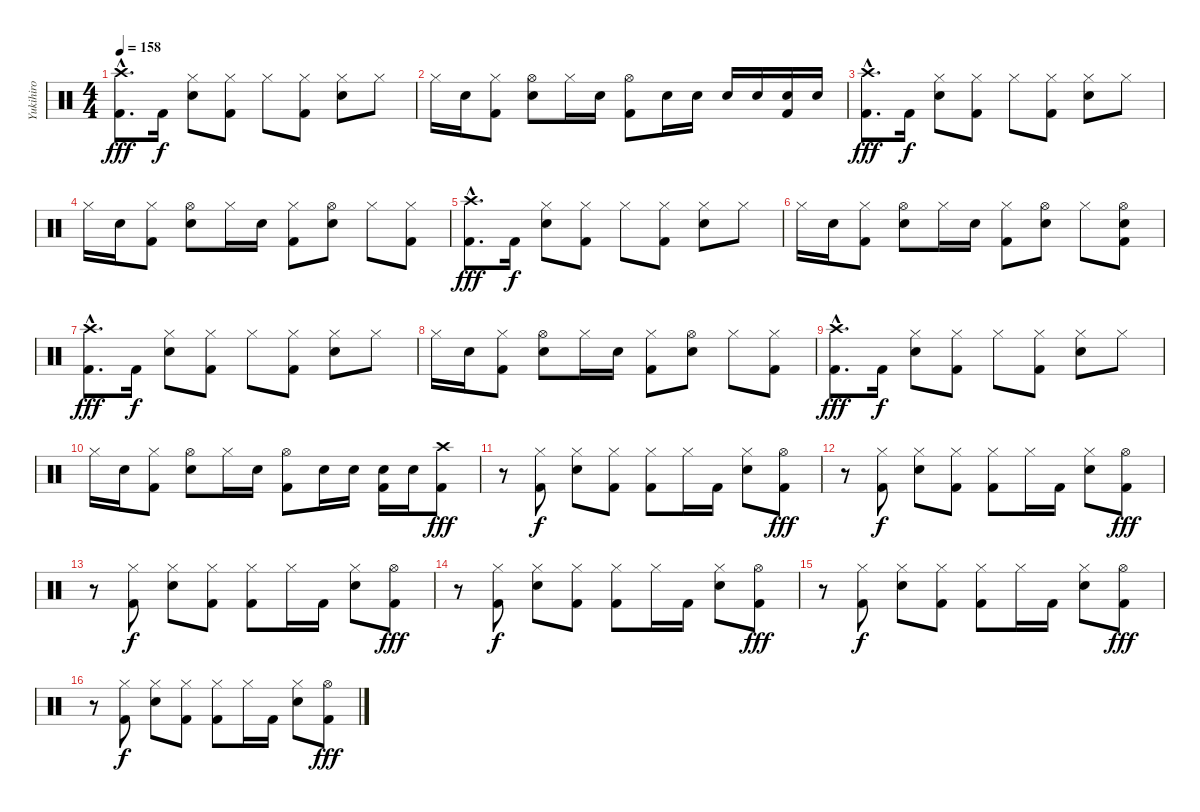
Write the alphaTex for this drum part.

\track ("Yukihiro" "Yukihiro") {instrument percussion}
\staff {score}
\articulation defaults
\ts (4 4)
\tempo 158
\clef neutral
\ks c
("Crash high (hit)"{hac} "Kick (hit) 2"{hac}).8{d dy fff} "Kick (hit) 2".16{dy f} ("Hi-Hat (closed)" "Snare (hit) 2").8 ("Hi-Hat (closed)" "Kick (hit) 2").8 "Hi-Hat (closed)".8 ("Hi-Hat (closed)" "Kick (hit) 2").8 ("Hi-Hat (closed)" "Snare (hit) 2").8 "Hi-Hat (closed)".8 |
"Hi-Hat (closed)".16 "Snare (hit) 2".16 ("Hi-Hat (closed)" "Kick (hit) 2").8 ("Hi-Hat (open)" "Snare (hit) 2").8 "Hi-Hat (closed)".16 "Snare (hit) 2".16 ("Hi-Hat (open)" "Kick (hit) 2").8 "Snare (hit) 2".16 "Snare (hit) 2".16 "Snare (hit) 2".16 "Snare (hit) 2".16 ("Snare (hit) 2" "Kick (hit) 2").16 "Snare (hit) 2".16 |
("Crash high (hit)"{hac} "Kick (hit) 2"{hac}).8{d dy fff} "Kick (hit) 2".16{dy f} ("Hi-Hat (closed)" "Snare (hit) 2").8 ("Hi-Hat (closed)" "Kick (hit) 2").8 "Hi-Hat (closed)".8 ("Hi-Hat (closed)" "Kick (hit) 2").8 ("Hi-Hat (closed)" "Snare (hit) 2").8 "Hi-Hat (closed)".8 |
"Hi-Hat (closed)".16 "Snare (hit) 2".16 ("Hi-Hat (closed)" "Kick (hit) 2").8 ("Hi-Hat (open)" "Snare (hit) 2").8 "Hi-Hat (closed)".16 "Snare (hit) 2".16 ("Hi-Hat (closed)" "Kick (hit) 2").8 ("Hi-Hat (open)" "Snare (hit) 2").8 "Hi-Hat (closed)".8 ("Hi-Hat (closed)" "Kick (hit) 2").8 |
("Crash high (hit)"{hac} "Kick (hit) 2"{hac}).8{d dy fff} "Kick (hit) 2".16{dy f} ("Hi-Hat (closed)" "Snare (hit) 2").8 ("Hi-Hat (closed)" "Kick (hit) 2").8 "Hi-Hat (closed)".8 ("Hi-Hat (closed)" "Kick (hit) 2").8 ("Hi-Hat (closed)" "Snare (hit) 2").8 "Hi-Hat (closed)".8 |
"Hi-Hat (closed)".16 "Snare (hit) 2".16 ("Hi-Hat (closed)" "Kick (hit) 2").8 ("Hi-Hat (open)" "Snare (hit) 2").8 "Hi-Hat (closed)".16 "Snare (hit) 2".16 ("Hi-Hat (closed)" "Kick (hit) 2").8 ("Hi-Hat (open)" "Snare (hit) 2").8 "Hi-Hat (closed)".8 ("Hi-Hat (open)" "Snare (hit) 2" "Kick (hit) 2").8 |
("Crash high (hit)"{hac} "Kick (hit) 2"{hac}).8{d dy fff} "Kick (hit) 2".16{dy f} ("Hi-Hat (closed)" "Snare (hit) 2").8 ("Hi-Hat (closed)" "Kick (hit) 2").8 "Hi-Hat (closed)".8 ("Hi-Hat (closed)" "Kick (hit) 2").8 ("Hi-Hat (closed)" "Snare (hit) 2").8 "Hi-Hat (closed)".8 |
"Hi-Hat (closed)".16 "Snare (hit) 2".16 ("Hi-Hat (closed)" "Kick (hit) 2").8 ("Hi-Hat (open)" "Snare (hit) 2").8 "Hi-Hat (closed)".16 "Snare (hit) 2".16 ("Hi-Hat (closed)" "Kick (hit) 2").8 ("Hi-Hat (open)" "Snare (hit) 2").8 "Hi-Hat (closed)".8 ("Hi-Hat (closed)" "Kick (hit) 2").8 |
("Crash high (hit)"{hac} "Kick (hit) 2"{hac}).8{d dy fff} "Kick (hit) 2".16{dy f} ("Hi-Hat (closed)" "Snare (hit) 2").8 ("Hi-Hat (closed)" "Kick (hit) 2").8 "Hi-Hat (closed)".8 ("Hi-Hat (closed)" "Kick (hit) 2").8 ("Hi-Hat (closed)" "Snare (hit) 2").8 "Hi-Hat (closed)".8 |
"Hi-Hat (closed)".16 "Snare (hit) 2".16 ("Hi-Hat (closed)" "Kick (hit) 2").8 ("Hi-Hat (open)" "Snare (hit) 2").8 "Hi-Hat (closed)".16 "Snare (hit) 2".16 ("Hi-Hat (open)" "Kick (hit) 2").8 "Snare (hit) 2".16 "Snare (hit) 2".16 ("Snare (hit) 2" "Kick (hit) 2").16 "Snare (hit) 2".16 ("Crash high (hit)" "Kick (hit) 2").8{dy fff} |
r.8 ("Hi-Hat (closed)" "Kick (hit) 2").8{dy f} ("Hi-Hat (closed)" "Snare (hit) 2").8 ("Hi-Hat (closed)" "Kick (hit) 2").8 ("Hi-Hat (closed)" "Kick (hit) 2").8 "Hi-Hat (closed)".16 "Kick (hit) 2".16 ("Hi-Hat (closed)" "Snare (hit) 2").8 ("Hi-Hat (open)" "Kick (hit) 2").8{dy fff} |
r.8 ("Hi-Hat (closed)" "Kick (hit) 2").8{dy f} ("Hi-Hat (closed)" "Snare (hit) 2").8 ("Hi-Hat (closed)" "Kick (hit) 2").8 ("Hi-Hat (closed)" "Kick (hit) 2").8 "Hi-Hat (closed)".16 "Kick (hit) 2".16 ("Hi-Hat (closed)" "Snare (hit) 2").8 ("Hi-Hat (open)" "Kick (hit) 2").8{dy fff} |
r.8 ("Hi-Hat (closed)" "Kick (hit) 2").8{dy f} ("Hi-Hat (closed)" "Snare (hit) 2").8 ("Hi-Hat (closed)" "Kick (hit) 2").8 ("Hi-Hat (closed)" "Kick (hit) 2").8 "Hi-Hat (closed)".16 "Kick (hit) 2".16 ("Hi-Hat (closed)" "Snare (hit) 2").8 ("Hi-Hat (open)" "Kick (hit) 2").8{dy fff} |
r.8 ("Hi-Hat (closed)" "Kick (hit) 2").8{dy f} ("Hi-Hat (closed)" "Snare (hit) 2").8 ("Hi-Hat (closed)" "Kick (hit) 2").8 ("Hi-Hat (closed)" "Kick (hit) 2").8 "Hi-Hat (closed)".16 "Kick (hit) 2".16 ("Hi-Hat (closed)" "Snare (hit) 2").8 ("Hi-Hat (open)" "Kick (hit) 2").8{dy fff} |
r.8 ("Hi-Hat (closed)" "Kick (hit) 2").8{dy f} ("Hi-Hat (closed)" "Snare (hit) 2").8 ("Hi-Hat (closed)" "Kick (hit) 2").8 ("Hi-Hat (closed)" "Kick (hit) 2").8 "Hi-Hat (closed)".16 "Kick (hit) 2".16 ("Hi-Hat (closed)" "Snare (hit) 2").8 ("Hi-Hat (open)" "Kick (hit) 2").8{dy fff} |
r.8 ("Hi-Hat (closed)" "Kick (hit) 2").8{dy f} ("Hi-Hat (closed)" "Snare (hit) 2").8 ("Hi-Hat (closed)" "Kick (hit) 2").8 ("Hi-Hat (closed)" "Kick (hit) 2").8 "Hi-Hat (closed)".16 "Kick (hit) 2".16 ("Hi-Hat (closed)" "Snare (hit) 2").8 ("Hi-Hat (open)" "Kick (hit) 2").8{dy fff}
